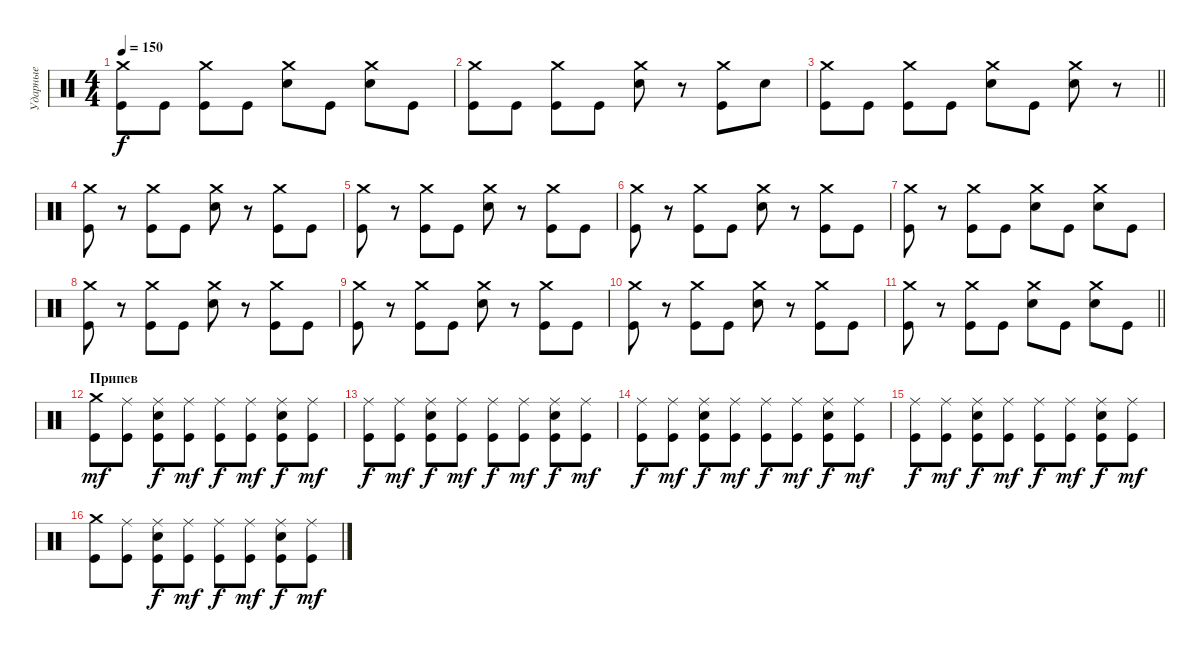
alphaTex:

\track ("Ударные" "Ударные") {instrument percussion}
\staff {score}
\articulation defaults
\ts (4 4)
\tempo 150
\clef neutral
\ks c
("Crash medium (hit)" "Kick (hit)").8{dy f} "Kick (hit)".8 ("Crash medium (hit)" "Kick (hit)").8 "Kick (hit)".8 ("Crash medium (hit)" "Electric Snare (hit)").8 "Kick (hit)".8 ("Crash medium (hit)" "Electric Snare (hit)").8 "Kick (hit)".8 |
("Crash medium (hit)" "Kick (hit)").8 "Kick (hit)".8 ("Crash medium (hit)" "Kick (hit)").8 "Kick (hit)".8 ("Crash medium (hit)" "Electric Snare (hit)").8 r.8 ("Crash medium (hit)" "Kick (hit)").8 "Electric Snare (hit)".8 |
\barLineRight lightlight
("Crash medium (hit)" "Kick (hit)").8 "Kick (hit)".8 ("Crash medium (hit)" "Kick (hit)").8 "Kick (hit)".8 ("Crash medium (hit)" "Electric Snare (hit)").8 "Kick (hit)".8 ("Crash medium (hit)" "Electric Snare (hit)").8 r.8 |
\section ("" " ")
("Crash medium (hit)" "Kick (hit)").8 r.8 ("Crash medium (hit)" "Kick (hit)").8 "Kick (hit)".8 ("Crash medium (hit)" "Electric Snare (hit)").8 r.8 ("Crash medium (hit)" "Kick (hit)").8 "Kick (hit)".8 |
("Crash medium (hit)" "Kick (hit)").8 r.8 ("Crash medium (hit)" "Kick (hit)").8 "Kick (hit)".8 ("Crash medium (hit)" "Electric Snare (hit)").8 r.8 ("Crash medium (hit)" "Kick (hit)").8 "Kick (hit)".8 |
("Crash medium (hit)" "Kick (hit)").8 r.8 ("Crash medium (hit)" "Kick (hit)").8 "Kick (hit)".8 ("Crash medium (hit)" "Electric Snare (hit)").8 r.8 ("Crash medium (hit)" "Kick (hit)").8 "Kick (hit)".8 |
("Crash medium (hit)" "Kick (hit)").8 r.8 ("Crash medium (hit)" "Kick (hit)").8 "Kick (hit)".8 ("Crash medium (hit)" "Electric Snare (hit)").8 "Kick (hit)".8 ("Crash medium (hit)" "Electric Snare (hit)").8 "Kick (hit)".8 |
("Crash medium (hit)" "Kick (hit)").8 r.8 ("Crash medium (hit)" "Kick (hit)").8 "Kick (hit)".8 ("Crash medium (hit)" "Electric Snare (hit)").8 r.8 ("Crash medium (hit)" "Kick (hit)").8 "Kick (hit)".8 |
("Crash medium (hit)" "Kick (hit)").8 r.8 ("Crash medium (hit)" "Kick (hit)").8 "Kick (hit)".8 ("Crash medium (hit)" "Electric Snare (hit)").8 r.8 ("Crash medium (hit)" "Kick (hit)").8 "Kick (hit)".8 |
("Crash medium (hit)" "Kick (hit)").8 r.8 ("Crash medium (hit)" "Kick (hit)").8 "Kick (hit)".8 ("Crash medium (hit)" "Electric Snare (hit)").8 r.8 ("Crash medium (hit)" "Kick (hit)").8 "Kick (hit)".8 |
\barLineRight lightlight
("Crash medium (hit)" "Kick (hit)").8 r.8 ("Crash medium (hit)" "Kick (hit)").8 "Kick (hit)".8 ("Crash medium (hit)" "Electric Snare (hit)").8 "Kick (hit)".8 ("Crash medium (hit)" "Electric Snare (hit)").8 "Kick (hit)".8 |
\section ("" "Припев")
("Kick (hit)" "Crash medium (hit)").8{dy mf} ("Kick (hit)" "Ride (middle)").8 ("Electric Snare (hit)" "Kick (hit)" "Ride (middle)").8{dy f} ("Kick (hit)" "Ride (middle)").8{dy mf} ("Kick (hit)" "Ride (middle)").8{dy f} ("Kick (hit)" "Ride (middle)").8{dy mf} ("Electric Snare (hit)" "Kick (hit)" "Ride (middle)").8{dy f} ("Kick (hit)" "Ride (middle)").8{dy mf} |
("Kick (hit)" "Ride (middle)").8{dy f} ("Kick (hit)" "Ride (middle)").8{dy mf} ("Electric Snare (hit)" "Kick (hit)" "Ride (middle)").8{dy f} ("Kick (hit)" "Ride (middle)").8{dy mf} ("Kick (hit)" "Ride (middle)").8{dy f} ("Kick (hit)" "Ride (middle)").8{dy mf} ("Electric Snare (hit)" "Kick (hit)" "Ride (middle)").8{dy f} ("Kick (hit)" "Ride (middle)").8{dy mf} |
("Kick (hit)" "Ride (middle)").8{dy f} ("Kick (hit)" "Ride (middle)").8{dy mf} ("Electric Snare (hit)" "Kick (hit)" "Ride (middle)").8{dy f} ("Kick (hit)" "Ride (middle)").8{dy mf} ("Kick (hit)" "Ride (middle)").8{dy f} ("Kick (hit)" "Ride (middle)").8{dy mf} ("Electric Snare (hit)" "Kick (hit)" "Ride (middle)").8{dy f} ("Kick (hit)" "Ride (middle)").8{dy mf} |
("Kick (hit)" "Ride (middle)").8{dy f} ("Kick (hit)" "Ride (middle)").8{dy mf} ("Electric Snare (hit)" "Kick (hit)" "Ride (middle)").8{dy f} ("Kick (hit)" "Ride (middle)").8{dy mf} ("Kick (hit)" "Ride (middle)").8{dy f} ("Kick (hit)" "Ride (middle)").8{dy mf} ("Electric Snare (hit)" "Kick (hit)" "Ride (middle)").8{dy f} ("Kick (hit)" "Ride (middle)").8{dy mf} |
("Kick (hit)" "Crash medium (hit)").8 ("Kick (hit)" "Ride (middle)").8 ("Electric Snare (hit)" "Kick (hit)" "Ride (middle)").8{dy f} ("Kick (hit)" "Ride (middle)").8{dy mf} ("Kick (hit)" "Ride (middle)").8{dy f} ("Kick (hit)" "Ride (middle)").8{dy mf} ("Electric Snare (hit)" "Kick (hit)" "Ride (middle)").8{dy f} ("Kick (hit)" "Ride (middle)").8{dy mf}
